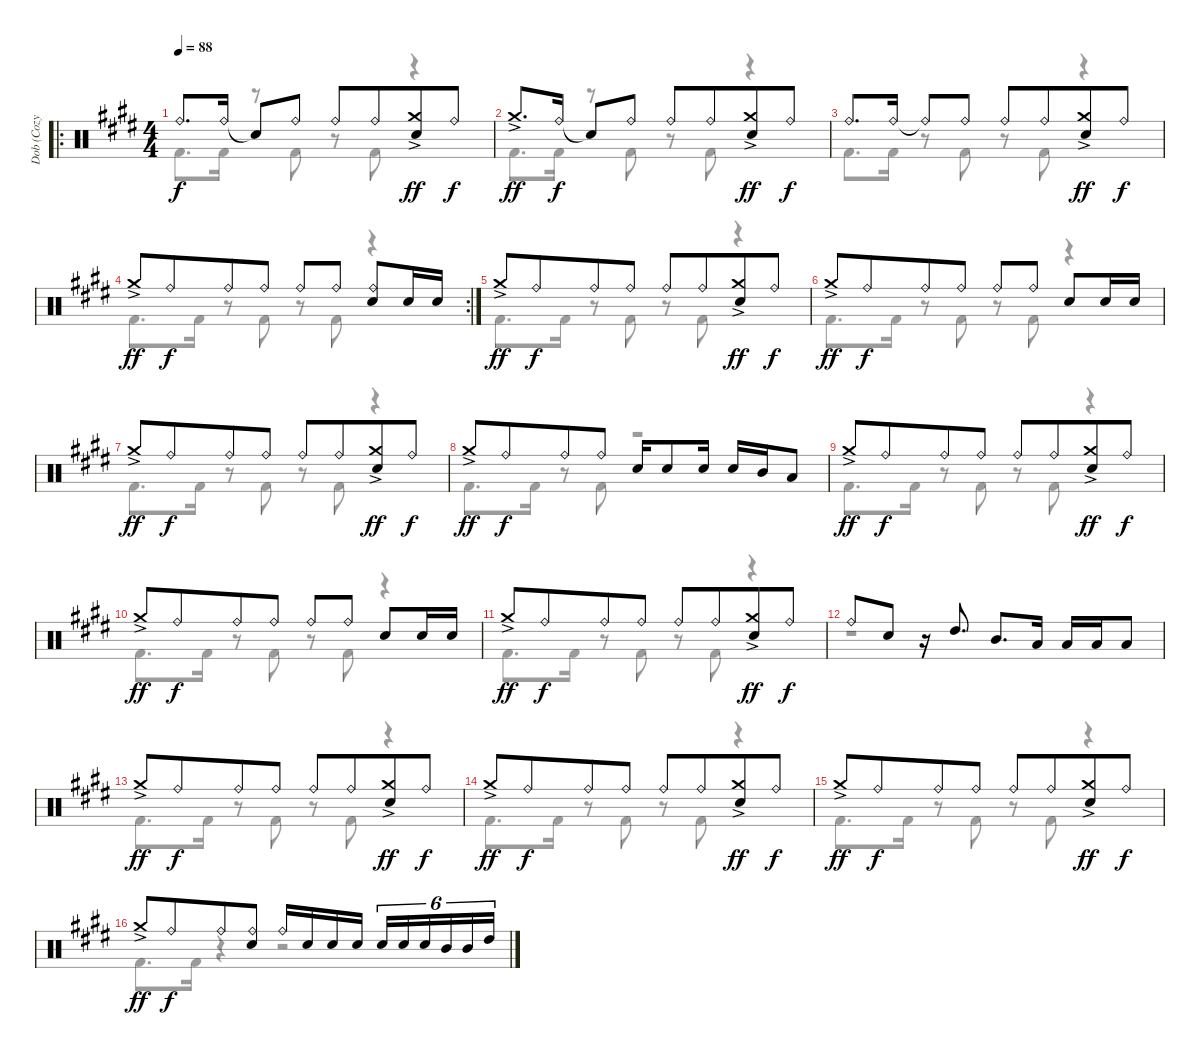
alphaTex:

\track ("Dob (Cozy Powell)" "Dob (Cozy ") {instrument percussion}
\staff {score}
\articulation defaults
\voice
\ro
\ts (4 4)
\tempo 88
\clef neutral
\ks e "Ride (bell)".8{d dy f} "Ride (bell)".16 "Snare (hit)"{t}.8 "Ride (bell)".8 "Ride (bell)".8 "Ride (bell)".8{beam merge}
("Crash medium (hit)"{ac} "Electric Snare (hit)").8{dy ff} "Ride (bell)".8{dy f} |
"Crash medium (hit)"{ac}.8{d dy ff} "Ride (bell)".16{dy f} "Snare (hit)"{t}.8 "Ride (bell)".8 "Ride (bell)".8 "Ride (bell)".8{beam merge} ("Crash medium (hit)"{ac} "Electric Snare (hit)").8{dy ff} "Ride (bell)".8{dy f} |
"Ride (bell)".8{d} "Ride (bell)".16 "Ride (bell)"{t}.8 "Ride (bell)".8 "Ride (bell)".8 "Ride (bell)".8{beam merge} ("Crash medium (hit)"{ac} "Electric Snare (hit)").8{dy ff} "Ride (bell)".8{dy f} |
\rc 2 "Crash medium (hit)"{ac}.8{dy ff} "Ride (bell)".8{dy f beam merge} "Ride (bell)".8 "Ride (bell)".8 "Ride (bell)".8 "Ride (bell)".8
("Ride (bell)" "Electric Snare (hit)").8 "Electric Snare (hit)".16 "Electric Snare (hit)".16 |
"Crash medium (hit)"{ac}.8{dy ff} "Ride (bell)".8{dy f beam merge} "Ride (bell)".8 "Ride (bell)".8 "Ride (bell)".8 "Ride (bell)".8{beam merge} ("Crash medium (hit)"{ac} "Electric Snare (hit)").8{dy ff} "Ride (bell)".8{dy f} |
"Crash medium (hit)"{ac}.8{dy ff} "Ride (bell)".8{dy f beam merge} "Ride (bell)".8 "Ride (bell)".8 "Ride (bell)".8 "Ride (bell)".8 "Electric Snare (hit)".8 "Electric Snare (hit)".16 "Electric Snare (hit)".16 |
"Crash medium (hit)"{ac}.8{dy ff} "Ride (bell)".8{dy f beam merge} "Ride (bell)".8 "Ride (bell)".8 "Ride (bell)".8 "Ride (bell)".8{beam merge} ("Crash medium (hit)"{ac} "Electric Snare (hit)").8{dy ff} "Ride (bell)".8{dy f} |
"Crash medium (hit)"{ac}.8{dy ff} "Ride (bell)".8{dy f beam merge} "Ride (bell)".8 "Ride (bell)".8 "Electric Snare (hit)".16 "Electric Snare (hit)".8 "Electric Snare (hit)".16 "Electric Snare (hit)".16 "Mid Tom (hit)".16 "Low Tom (hit)".8 |
"Crash medium (hit)"{ac}.8{dy ff} "Ride (bell)".8{dy f beam merge} "Ride (bell)".8 "Ride (bell)".8 "Ride (bell)".8 "Ride (bell)".8{beam merge} ("Crash medium (hit)"{ac} "Electric Snare (hit)").8{dy ff} "Ride (bell)".8{dy f} |
"Crash medium (hit)"{ac}.8{dy ff} "Ride (bell)".8{dy f beam merge} "Ride (bell)".8 "Ride (bell)".8 "Ride (bell)".8 "Ride (bell)".8 "Electric Snare (hit)".8 "Electric Snare (hit)".16 "Electric Snare (hit)".16 |
"Crash medium (hit)"{ac}.8{dy ff} "Ride (bell)".8{dy f beam merge} "Ride (bell)".8 "Ride (bell)".8 "Ride (bell)".8 "Ride (bell)".8{beam merge} ("Crash medium (hit)"{ac} "Electric Snare (hit)").8{dy ff} "Ride (bell)".8{dy f} |
"Ride (bell)".8 "Electric Snare (hit)".8 r.16 "High Tom (hit)".8{d} "Mid Tom (hit)".8{d} "Low Tom (hit)".16 "Low Tom (hit)".16 "Low Tom (hit)".16 "Low Tom (hit)".8 |
"Crash medium (hit)"{ac}.8{dy ff} "Ride (bell)".8{dy f beam merge} "Ride (bell)".8 "Ride (bell)".8 "Ride (bell)".8 "Ride (bell)".8{beam merge} ("Crash medium (hit)"{ac} "Electric Snare (hit)").8{dy ff} "Ride (bell)".8{dy f} |
"Crash medium (hit)"{ac}.8{dy ff} "Ride (bell)".8{dy f beam merge} "Ride (bell)".8 "Ride (bell)".8 "Ride (bell)".8 "Ride (bell)".8{beam merge} ("Crash medium (hit)"{ac} "Electric Snare (hit)").8{dy ff} "Ride (bell)".8{dy f} |
"Crash medium (hit)"{ac}.8{dy ff} "Ride (bell)".8{dy f beam merge} "Ride (bell)".8 "Ride (bell)".8 "Ride (bell)".8 "Ride (bell)".8{beam merge} ("Crash medium (hit)"{ac} "Electric Snare (hit)").8{dy ff} "Ride (bell)".8{dy f} |
"Crash medium (hit)"{ac}.8{dy ff} "Ride (bell)".8{dy f beam merge} "Ride (bell)".8 ("Ride (bell)" "Electric Snare (hit)").8 "Ride (bell)".16 "Electric Snare (hit)".16 "Electric Snare (hit)".16 "Electric Snare (hit)".16 "Electric Snare (hit)".16{tu (6 4)} "Electric Snare (hit)".16{tu (6 4)} "Electric Snare (hit)".16{tu (6 4)} "Mid Tom (hit)".16{tu (6 4)} "Mid Tom (hit)".16{tu (6 4)} "High Tom (hit)".16{tu (6 4)}
\voice
\clef neutral
\ottava regular
\simile none
\ks e "Kick (hit) 2".8{d dy f} "Kick (hit) 2".16
r.8 "Kick (hit) 2".8 r.8 "Kick (hit) 2".8 r.4 |
"Kick (hit) 2".8{d} "Kick (hit) 2".16 r.8 "Kick (hit) 2".8 r.8 "Kick (hit) 2".8 r.4 |
"Kick (hit) 2".8{d} "Kick (hit) 2".16 r.8 "Kick (hit) 2".8 r.8 "Kick (hit) 2".8 r.4 |
"Kick (hit) 2".8{d} "Kick (hit) 2".16 r.8 "Kick (hit) 2".8 r.8 "Kick (hit) 2".8 r.4 |
"Kick (hit) 2".8{d} "Kick (hit) 2".16 r.8 "Kick (hit) 2".8 r.8 "Kick (hit) 2".8 r.4 |
"Kick (hit) 2".8{d} "Kick (hit) 2".16 r.8 "Kick (hit) 2".8 r.8 "Kick (hit) 2".8 r.4 |
"Kick (hit) 2".8{d} "Kick (hit) 2".16 r.8 "Kick (hit) 2".8 r.8 "Kick (hit) 2".8 r.4 |
"Kick (hit) 2".8{d} "Kick (hit) 2".16 r.8 "Kick (hit) 2".8 r.2 |
"Kick (hit) 2".8{d} "Kick (hit) 2".16 r.8 "Kick (hit) 2".8 r.8 "Kick (hit) 2".8 r.4 |
"Kick (hit) 2".8{d} "Kick (hit) 2".16 r.8 "Kick (hit) 2".8 r.8 "Kick (hit) 2".8 r.4 |
"Kick (hit) 2".8{d} "Kick (hit) 2".16 r.8 "Kick (hit) 2".8 r.8 "Kick (hit) 2".8 r.4 |
r.1 |
"Kick (hit) 2".8{d} "Kick (hit) 2".16 r.8 "Kick (hit) 2".8 r.8 "Kick (hit) 2".8 r.4 |
"Kick (hit) 2".8{d} "Kick (hit) 2".16 r.8 "Kick (hit) 2".8 r.8 "Kick (hit) 2".8 r.4 |
"Kick (hit) 2".8{d} "Kick (hit) 2".16 r.8 "Kick (hit) 2".8 r.8 "Kick (hit) 2".8 r.4 |
"Kick (hit) 2".8{d} "Kick (hit) 2".16 r.4 r.2
